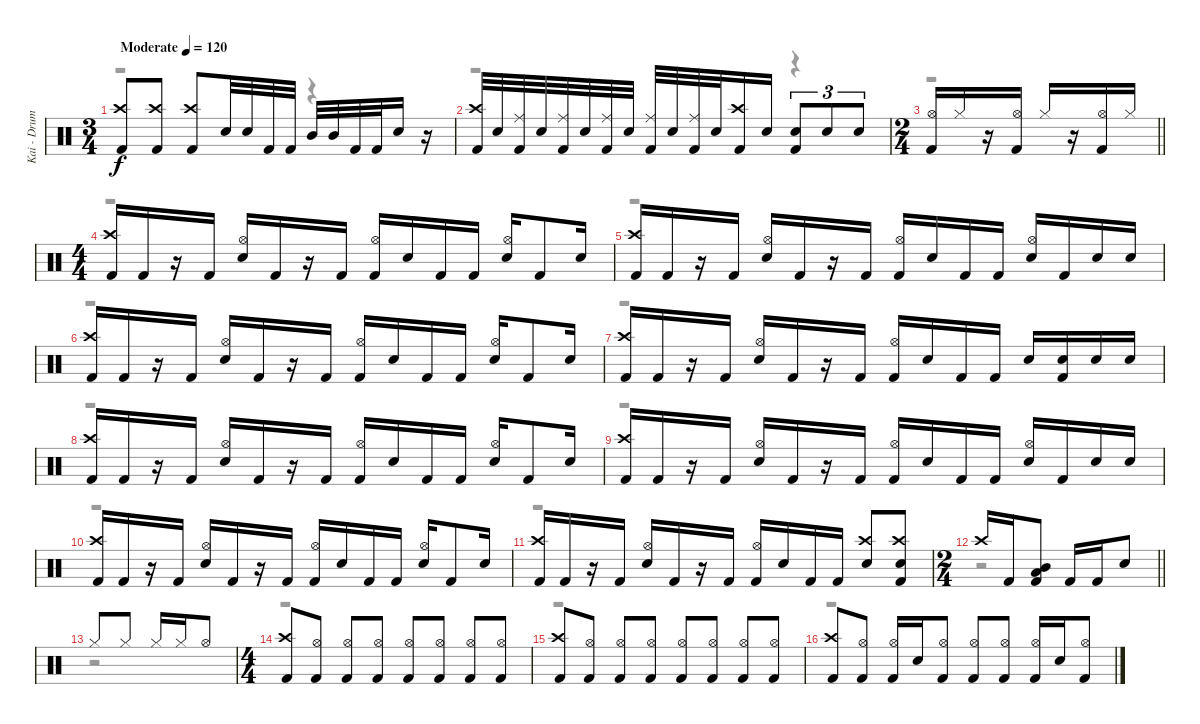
\track ("Kai - Drums " "Kai - Drum") {instrument percussion}
\staff {score}
\articulation defaults
\voice
\ts (3 4)
\tempo (120 "Moderate")
\clef neutral
\ks c
("Crash high (hit)" "Kick (hit) 2").8{dy f} ("Crash high (hit)" "Kick (hit) 2").8 ("Crash high (hit)" "Kick (hit) 2").8 "Electric Snare (hit)".32 "Electric Snare (hit)".32 "Kick (hit) 2".32 "Kick (hit) 2".32 "Mid Tom (hit)".32 "Mid Tom (hit)".32 "Kick (hit) 2".32 "Kick (hit) 2".32 "Electric Snare (hit)".16 r.16 |
("Crash high (hit)" "Kick (hit) 2").32 "Electric Snare (hit)".32 ("Ride (middle)" "Kick (hit) 2").32 "Electric Snare (hit)".32 ("Ride (middle)" "Kick (hit) 2").32 "Electric Snare (hit)".32 ("Ride (middle)" "Kick (hit) 2").32 "Electric Snare (hit)".32 ("Ride (middle)" "Kick (hit) 2").32 "Electric Snare (hit)".32 ("Ride (middle)" "Kick (hit) 2").32 "Electric Snare (hit)".32 ("Crash high (hit)" "Kick (hit) 2").16 "Electric Snare (hit)".16 ("Electric Snare (hit)" "Kick (hit) 2").8{tu (3 2)} "Electric Snare (hit)".8{tu (3 2)} "Electric Snare (hit)".8{tu (3 2)} |
\ts (2 4)
\barLineRight lightlight
("Hi-Hat (open)" "Kick (hit) 2").16 "Hi-Hat (closed)".16 r.16 ("Hi-Hat (open)" "Kick (hit) 2").16 "Hi-Hat (closed)".16 r.16 ("Hi-Hat (open)" "Kick (hit) 2").16 "Hi-Hat (closed)".16 |
\ts (4 4)
("Crash high (hit)" "Kick (hit) 2").16 "Kick (hit) 2".16 r.16 "Kick (hit) 2".16 ("Hi-Hat (open)" "Electric Snare (hit)").16 "Kick (hit) 2".16 r.16 "Kick (hit) 2".16 ("Hi-Hat (open)" "Kick (hit) 2").16 "Electric Snare (hit)".16 "Kick (hit) 2".16 "Kick (hit) 2".16 ("Hi-Hat (open)" "Electric Snare (hit)").16 "Kick (hit) 2".8 "Electric Snare (hit)".16 |
("Crash high (hit)" "Kick (hit) 2").16 "Kick (hit) 2".16 r.16 "Kick (hit) 2".16 ("Hi-Hat (open)" "Electric Snare (hit)").16 "Kick (hit) 2".16 r.16 "Kick (hit) 2".16 ("Hi-Hat (open)" "Kick (hit) 2").16 "Electric Snare (hit)".16 "Kick (hit) 2".16 "Kick (hit) 2".16 ("Hi-Hat (open)" "Electric Snare (hit)").16 "Kick (hit) 2".16 "Electric Snare (hit)".16 "Electric Snare (hit)".16 |
("Crash high (hit)" "Kick (hit) 2").16 "Kick (hit) 2".16 r.16 "Kick (hit) 2".16 ("Hi-Hat (open)" "Electric Snare (hit)").16 "Kick (hit) 2".16 r.16 "Kick (hit) 2".16 ("Hi-Hat (open)" "Kick (hit) 2").16 "Electric Snare (hit)".16 "Kick (hit) 2".16 "Kick (hit) 2".16 ("Hi-Hat (open)" "Electric Snare (hit)").16 "Kick (hit) 2".8 "Electric Snare (hit)".16 |
("Crash high (hit)" "Kick (hit) 2").16 "Kick (hit) 2".16 r.16 "Kick (hit) 2".16 ("Hi-Hat (open)" "Electric Snare (hit)").16 "Kick (hit) 2".16 r.16 "Kick (hit) 2".16 ("Hi-Hat (open)" "Kick (hit) 2").16 "Electric Snare (hit)".16 "Kick (hit) 2".16 "Kick (hit) 2".16 "Electric Snare (hit)".16 ("Electric Snare (hit)" "Kick (hit) 2").16 "Electric Snare (hit)".16 "Electric Snare (hit)".16 |
("Crash high (hit)" "Kick (hit) 2").16 "Kick (hit) 2".16 r.16 "Kick (hit) 2".16 ("Hi-Hat (open)" "Electric Snare (hit)").16 "Kick (hit) 2".16 r.16 "Kick (hit) 2".16 ("Hi-Hat (open)" "Kick (hit) 2").16 "Electric Snare (hit)".16 "Kick (hit) 2".16 "Kick (hit) 2".16 ("Hi-Hat (open)" "Electric Snare (hit)").16 "Kick (hit) 2".8 "Electric Snare (hit)".16 |
("Crash high (hit)" "Kick (hit) 2").16 "Kick (hit) 2".16 r.16 "Kick (hit) 2".16 ("Hi-Hat (open)" "Electric Snare (hit)").16 "Kick (hit) 2".16 r.16 "Kick (hit) 2".16 ("Hi-Hat (open)" "Kick (hit) 2").16 "Electric Snare (hit)".16 "Kick (hit) 2".16 "Kick (hit) 2".16 ("Hi-Hat (open)" "Electric Snare (hit)").16 "Kick (hit) 2".16 "Electric Snare (hit)".16 "Electric Snare (hit)".16 |
("Crash high (hit)" "Kick (hit) 2").16 "Kick (hit) 2".16 r.16 "Kick (hit) 2".16 ("Hi-Hat (open)" "Electric Snare (hit)").16 "Kick (hit) 2".16 r.16 "Kick (hit) 2".16 ("Hi-Hat (open)" "Kick (hit) 2").16 "Electric Snare (hit)".16 "Kick (hit) 2".16 "Kick (hit) 2".16 ("Hi-Hat (open)" "Electric Snare (hit)").16 "Kick (hit) 2".8 "Electric Snare (hit)".16 |
("Crash high (hit)" "Kick (hit) 2").16 "Kick (hit) 2".16 r.16 "Kick (hit) 2".16 ("Hi-Hat (open)" "Electric Snare (hit)").16 "Kick (hit) 2".16 r.16 "Kick (hit) 2".16 ("Hi-Hat (open)" "Kick (hit) 2").16 "Electric Snare (hit)".16 "Kick (hit) 2".16 "Kick (hit) 2".16 ("Crash high (hit)" "Electric Snare (hit)").8 ("Crash high (hit)" "Electric Snare (hit)" "Kick (hit) 2").8 |
\ts (2 4)
\barLineRight lightlight "Crash high (hit)".16 "Kick (hit) 2".16
("Mid Tom (hit)" "Low Tom (hit)" "Kick (hit) 2").8 "Kick (hit) 2".16 "Kick (hit) 2".16 "Electric Snare (hit)".8 |
"Hi-Hat (closed)".8 "Hi-Hat (closed)".8 "Hi-Hat (closed)".16 "Hi-Hat (closed)".16 "Hi-Hat (open)".8 |
\ts (4 4)
("Crash high (hit)" "Kick (hit) 2").8 ("Hi-Hat (open)" "Kick (hit) 2").8 ("Hi-Hat (open)" "Kick (hit) 2").8 ("Hi-Hat (open)" "Kick (hit) 2").8 ("Hi-Hat (open)" "Kick (hit) 2").8 ("Hi-Hat (open)" "Kick (hit) 2").8 ("Hi-Hat (open)" "Kick (hit) 2").8 ("Hi-Hat (open)" "Kick (hit) 2").8 |
("Crash high (hit)" "Kick (hit) 2").8 ("Hi-Hat (open)" "Kick (hit) 2").8 ("Hi-Hat (open)" "Kick (hit) 2").8 ("Hi-Hat (open)" "Kick (hit) 2").8 ("Hi-Hat (open)" "Kick (hit) 2").8 ("Hi-Hat (open)" "Kick (hit) 2").8 ("Hi-Hat (open)" "Kick (hit) 2").8 ("Hi-Hat (open)" "Kick (hit) 2").8 |
("Crash high (hit)" "Kick (hit) 2").8 ("Hi-Hat (open)" "Kick (hit) 2").8 ("Hi-Hat (open)" "Kick (hit) 2").16 "Electric Snare (hit)".16 ("Hi-Hat (open)" "Kick (hit) 2").8 ("Hi-Hat (open)" "Kick (hit) 2").8 ("Hi-Hat (open)" "Kick (hit) 2").8 ("Hi-Hat (open)" "Kick (hit) 2").16 "Electric Snare (hit)".16 ("Hi-Hat (open)" "Kick (hit) 2").8
\voice
\clef neutral
\ottava regular
\simile none
\ks c
r.2{dy f} r.4 |
r.2 r.4 |
\barLineRight lightlight
r.2 |
r.1 |
r.1 |
r.1 |
r.1 |
r.1 |
r.1 |
r.1 |
r.1 |
\barLineRight lightlight
r.2 |
r.2 |
r.1 |
r.1 |
r.1
